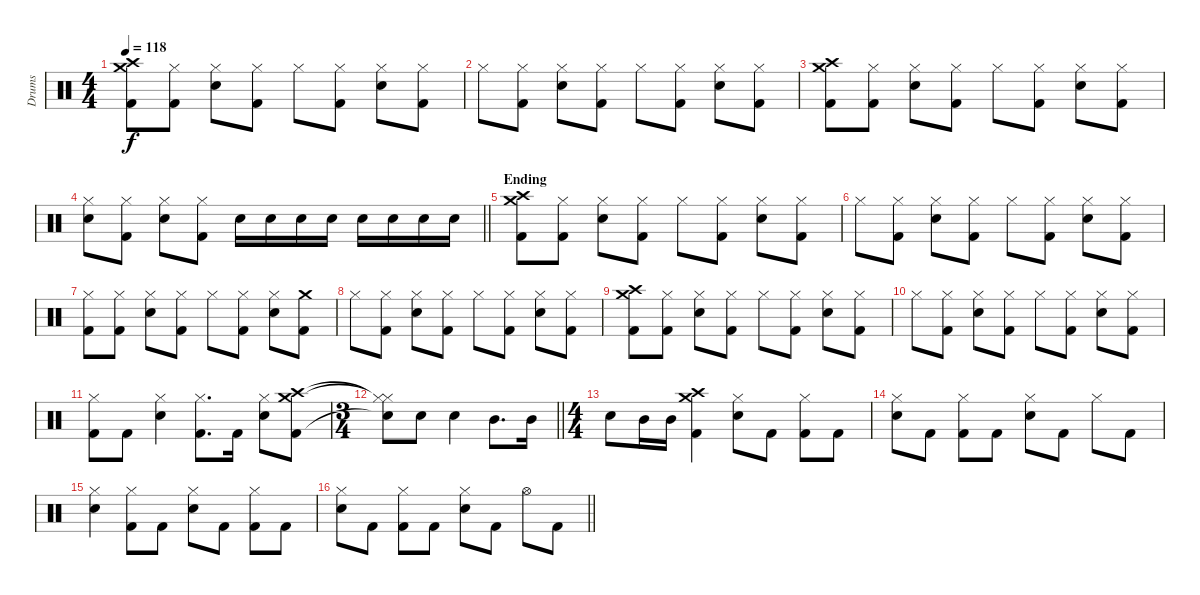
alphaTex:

\track ("Drums" "Drums") {instrument percussion}
\staff {score}
\articulation defaults
\ts (4 4)
\tempo 118
\clef neutral
\ks c
("Crash medium (hit)" "Crash high (hit)" "Kick (hit) 2").8{dy f} ("Hi-Hat (closed)" "Kick (hit) 2").8 ("Hi-Hat (closed)" "Snare (hit) 2").8 ("Hi-Hat (closed)" "Kick (hit) 2").8 "Hi-Hat (closed)".8 ("Hi-Hat (closed)" "Kick (hit) 2").8 ("Hi-Hat (closed)" "Snare (hit) 2").8 ("Hi-Hat (closed)" "Kick (hit) 2").8 |
"Hi-Hat (closed)".8 ("Hi-Hat (closed)" "Kick (hit) 2").8 ("Hi-Hat (closed)" "Snare (hit) 2").8 ("Hi-Hat (closed)" "Kick (hit) 2").8 "Hi-Hat (closed)".8 ("Hi-Hat (closed)" "Kick (hit) 2").8 ("Hi-Hat (closed)" "Snare (hit) 2").8 ("Hi-Hat (closed)" "Kick (hit) 2").8 |
("Crash medium (hit)" "Crash high (hit)" "Kick (hit) 2").8 ("Hi-Hat (closed)" "Kick (hit) 2").8 ("Hi-Hat (closed)" "Snare (hit) 2").8 ("Hi-Hat (closed)" "Kick (hit) 2").8 "Hi-Hat (closed)".8 ("Hi-Hat (closed)" "Kick (hit) 2").8 ("Hi-Hat (closed)" "Snare (hit) 2").8 ("Hi-Hat (closed)" "Kick (hit) 2").8 |
\barLineRight lightlight
("Hi-Hat (closed)" "Snare (hit) 2").8 ("Hi-Hat (closed)" "Kick (hit) 2").8 ("Hi-Hat (closed)" "Snare (hit) 2").8 ("Hi-Hat (closed)" "Kick (hit) 2").8 "Snare (hit) 2".16 "Snare (hit) 2".16 "Snare (hit) 2".16 "Snare (hit) 2".16 "Snare (hit) 2".16 "Snare (hit) 2".16 "Snare (hit) 2".16 "Snare (hit) 2".16 |
\section ("" "Ending")
("Crash medium (hit)" "Crash high (hit)" "Kick (hit) 2").8 ("Hi-Hat (closed)" "Kick (hit) 2").8 ("Hi-Hat (closed)" "Snare (hit) 2").8 ("Hi-Hat (closed)" "Kick (hit) 2").8 "Hi-Hat (closed)".8 ("Hi-Hat (closed)" "Kick (hit) 2").8 ("Hi-Hat (closed)" "Snare (hit) 2").8 ("Hi-Hat (closed)" "Kick (hit) 2").8 |
"Hi-Hat (closed)".8 ("Hi-Hat (closed)" "Kick (hit) 2").8 ("Hi-Hat (closed)" "Snare (hit) 2").8 ("Hi-Hat (closed)" "Kick (hit) 2").8 "Hi-Hat (closed)".8 ("Hi-Hat (closed)" "Kick (hit) 2").8 ("Hi-Hat (closed)" "Snare (hit) 2").8 ("Hi-Hat (closed)" "Kick (hit) 2").8 |
("Hi-Hat (closed)" "Kick (hit) 2").8 ("Hi-Hat (closed)" "Kick (hit) 2").8 ("Hi-Hat (closed)" "Snare (hit) 2").8 ("Hi-Hat (closed)" "Kick (hit) 2").8 "Hi-Hat (closed)".8 ("Hi-Hat (closed)" "Kick (hit) 2").8 ("Hi-Hat (closed)" "Snare (hit) 2").8 ("Crash medium (hit)" "Kick (hit) 2").8 |
"Hi-Hat (closed)".8 ("Hi-Hat (closed)" "Kick (hit) 2").8 ("Hi-Hat (closed)" "Snare (hit) 2").8 ("Hi-Hat (closed)" "Kick (hit) 2").8 "Hi-Hat (closed)".8 ("Hi-Hat (closed)" "Kick (hit) 2").8 ("Hi-Hat (closed)" "Snare (hit) 2").8 ("Hi-Hat (closed)" "Kick (hit) 2").8 |
("Crash medium (hit)" "Crash high (hit)" "Kick (hit) 2").8 ("Hi-Hat (closed)" "Kick (hit) 2").8 ("Hi-Hat (closed)" "Snare (hit) 2").8 ("Hi-Hat (closed)" "Kick (hit) 2").8 "Hi-Hat (closed)".8 ("Hi-Hat (closed)" "Kick (hit) 2").8 ("Hi-Hat (closed)" "Snare (hit) 2").8 ("Hi-Hat (closed)" "Kick (hit) 2").8 |
"Hi-Hat (closed)".8 ("Hi-Hat (closed)" "Kick (hit) 2").8 ("Hi-Hat (closed)" "Snare (hit) 2").8 ("Hi-Hat (closed)" "Kick (hit) 2").8 "Hi-Hat (closed)".8 ("Hi-Hat (closed)" "Kick (hit) 2").8 ("Hi-Hat (closed)" "Snare (hit) 2").8 ("Hi-Hat (closed)" "Kick (hit) 2").8 |
("Hi-Hat (closed)" "Kick (hit) 2").8 "Kick (hit) 2".8 ("Hi-Hat (closed)" "Snare (hit) 2").4 ("Hi-Hat (closed)" "Kick (hit) 2").8{d} "Kick (hit) 2".16 ("Hi-Hat (closed)" "Snare (hit) 2").8 ("Crash medium (hit)" "Crash high (hit)" "Kick (hit) 2").8 |
\ts (3 4)
\barLineRight lightlight
("Hi-Hat (closed)"{t} "Hi-Hat (closed)"{t} "Snare (hit)"{t}).8 "Snare (hit) 2".8 "Snare (hit) 2".4 "Mid Tom (hit)".8{d} "Mid Tom (hit)".16 |
\ts (4 4)
\section ("" "")
"Snare (hit) 2".8 "Mid Tom (hit)".16 "Mid Tom (hit)".16 ("Crash medium (hit)" "Crash high (hit)" "Kick (hit) 2").4 ("Hi-Hat (closed)" "Snare (hit) 2").8 "Kick (hit) 2".8 ("Hi-Hat (closed)" "Kick (hit) 2").8 "Kick (hit) 2".8 |
("Hi-Hat (closed)" "Snare (hit) 2").8 "Kick (hit) 2".8 ("Hi-Hat (closed)" "Kick (hit) 2").8 "Kick (hit) 2".8 ("Hi-Hat (closed)" "Snare (hit) 2").8 "Kick (hit) 2".8 "Hi-Hat (closed)".8 "Kick (hit) 2".8 |
("Hi-Hat (closed)" "Snare (hit) 2").4 ("Hi-Hat (closed)" "Kick (hit) 2").8 "Kick (hit) 2".8 ("Hi-Hat (closed)" "Snare (hit) 2").8 "Kick (hit) 2".8 ("Hi-Hat (closed)" "Kick (hit) 2").8 "Kick (hit) 2".8 |
\barLineRight lightlight
("Hi-Hat (closed)" "Snare (hit) 2").8 "Kick (hit) 2".8 ("Hi-Hat (closed)" "Kick (hit) 2").8 "Kick (hit) 2".8 ("Hi-Hat (closed)" "Snare (hit) 2").8 "Kick (hit) 2".8 "Hi-Hat (open)".8 "Kick (hit) 2".8
